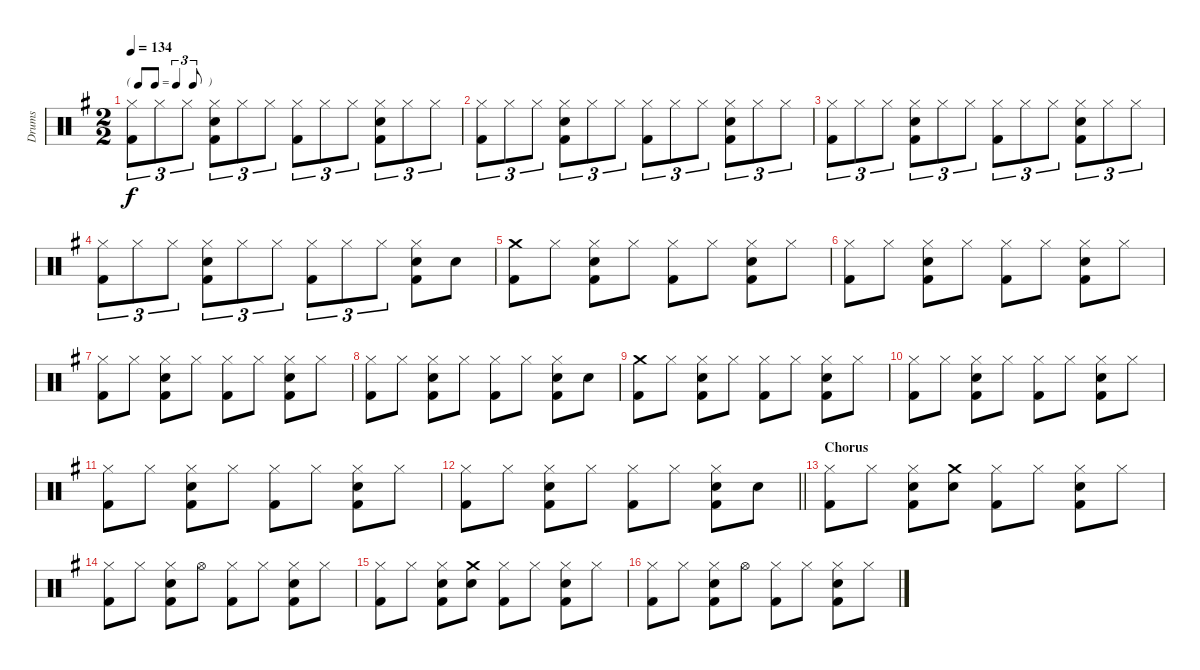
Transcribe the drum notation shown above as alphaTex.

\track ("Drums" "Drums") {instrument percussion}
\staff {score}
\articulation defaults
\ts (2 2)
\tf triplet8th
\tempo 134
\clef neutral
\ks g
("Hi-Hat (closed)" "Kick (hit) 2").8{tu (3 2) dy f} "Hi-Hat (closed)".8{tu (3 2)} "Hi-Hat (closed)".8{tu (3 2) beam split} ("Hi-Hat (closed)" "Snare (hit) 2" "Kick (hit) 2").8{tu (3 2)} "Hi-Hat (closed)".8{tu (3 2)} "Hi-Hat (closed)".8{tu (3 2) beam split} ("Hi-Hat (closed)" "Kick (hit) 2").8{tu (3 2)} "Hi-Hat (closed)".8{tu (3 2)} "Hi-Hat (closed)".8{tu (3 2) beam split} ("Hi-Hat (closed)" "Snare (hit) 2" "Kick (hit) 2").8{tu (3 2)} "Hi-Hat (closed)".8{tu (3 2)} "Hi-Hat (closed)".8{tu (3 2)} |
("Hi-Hat (closed)" "Kick (hit) 2").8{tu (3 2)} "Hi-Hat (closed)".8{tu (3 2)} "Hi-Hat (closed)".8{tu (3 2) beam split} ("Hi-Hat (closed)" "Snare (hit) 2" "Kick (hit) 2").8{tu (3 2)} "Hi-Hat (closed)".8{tu (3 2)} "Hi-Hat (closed)".8{tu (3 2) beam split} ("Hi-Hat (closed)" "Kick (hit) 2").8{tu (3 2)} "Hi-Hat (closed)".8{tu (3 2)} "Hi-Hat (closed)".8{tu (3 2) beam split} ("Hi-Hat (closed)" "Snare (hit) 2" "Kick (hit) 2").8{tu (3 2)} "Hi-Hat (closed)".8{tu (3 2)} "Hi-Hat (closed)".8{tu (3 2)} |
("Hi-Hat (closed)" "Kick (hit) 2").8{tu (3 2)} "Hi-Hat (closed)".8{tu (3 2)} "Hi-Hat (closed)".8{tu (3 2) beam split} ("Hi-Hat (closed)" "Snare (hit) 2" "Kick (hit) 2").8{tu (3 2)} "Hi-Hat (closed)".8{tu (3 2)} "Hi-Hat (closed)".8{tu (3 2) beam split} ("Hi-Hat (closed)" "Kick (hit) 2").8{tu (3 2)} "Hi-Hat (closed)".8{tu (3 2)} "Hi-Hat (closed)".8{tu (3 2) beam split} ("Hi-Hat (closed)" "Snare (hit) 2" "Kick (hit) 2").8{tu (3 2)} "Hi-Hat (closed)".8{tu (3 2)} "Hi-Hat (closed)".8{tu (3 2)} |
("Hi-Hat (closed)" "Kick (hit) 2").8{tu (3 2)} "Hi-Hat (closed)".8{tu (3 2)} "Hi-Hat (closed)".8{tu (3 2) beam split} ("Hi-Hat (closed)" "Snare (hit) 2" "Kick (hit) 2").8{tu (3 2)} "Hi-Hat (closed)".8{tu (3 2)} "Hi-Hat (closed)".8{tu (3 2) beam split} ("Hi-Hat (closed)" "Kick (hit) 2").8{tu (3 2)} "Hi-Hat (closed)".8{tu (3 2)} "Hi-Hat (closed)".8{tu (3 2) beam split} ("Hi-Hat (closed)" "Snare (hit) 2" "Kick (hit) 2").8 "Snare (hit) 2".8 |
("Crash medium (hit)" "Kick (hit) 2").8 "Hi-Hat (closed)".8 ("Hi-Hat (closed)" "Snare (hit) 2" "Kick (hit) 2").8 "Hi-Hat (closed)".8 ("Hi-Hat (closed)" "Kick (hit) 2").8 "Hi-Hat (closed)".8 ("Hi-Hat (closed)" "Snare (hit) 2" "Kick (hit) 2").8 "Hi-Hat (closed)".8 |
("Hi-Hat (closed)" "Kick (hit) 2").8 "Hi-Hat (closed)".8 ("Hi-Hat (closed)" "Snare (hit) 2" "Kick (hit) 2").8 "Hi-Hat (closed)".8 ("Hi-Hat (closed)" "Kick (hit) 2").8 "Hi-Hat (closed)".8 ("Hi-Hat (closed)" "Snare (hit) 2" "Kick (hit) 2").8 "Hi-Hat (closed)".8 |
("Hi-Hat (closed)" "Kick (hit) 2").8 "Hi-Hat (closed)".8 ("Hi-Hat (closed)" "Snare (hit) 2" "Kick (hit) 2").8 "Hi-Hat (closed)".8 ("Hi-Hat (closed)" "Kick (hit) 2").8 "Hi-Hat (closed)".8 ("Hi-Hat (closed)" "Snare (hit) 2" "Kick (hit) 2").8 "Hi-Hat (closed)".8 |
("Hi-Hat (closed)" "Kick (hit) 2").8 "Hi-Hat (closed)".8 ("Hi-Hat (closed)" "Snare (hit) 2" "Kick (hit) 2").8 "Hi-Hat (closed)".8 ("Hi-Hat (closed)" "Kick (hit) 2").8 "Hi-Hat (closed)".8 ("Hi-Hat (closed)" "Snare (hit) 2" "Kick (hit) 2").8 "Snare (hit) 2".8 |
("Crash medium (hit)" "Kick (hit) 2").8 "Hi-Hat (closed)".8 ("Hi-Hat (closed)" "Snare (hit) 2" "Kick (hit) 2").8 "Hi-Hat (closed)".8 ("Hi-Hat (closed)" "Kick (hit) 2").8 "Hi-Hat (closed)".8 ("Hi-Hat (closed)" "Snare (hit) 2" "Kick (hit) 2").8 "Hi-Hat (closed)".8 |
("Hi-Hat (closed)" "Kick (hit) 2").8 "Hi-Hat (closed)".8 ("Hi-Hat (closed)" "Snare (hit) 2" "Kick (hit) 2").8 "Hi-Hat (closed)".8 ("Hi-Hat (closed)" "Kick (hit) 2").8 "Hi-Hat (closed)".8 ("Hi-Hat (closed)" "Snare (hit) 2" "Kick (hit) 2").8 "Hi-Hat (closed)".8 |
("Hi-Hat (closed)" "Kick (hit) 2").8 "Hi-Hat (closed)".8 ("Hi-Hat (closed)" "Snare (hit) 2" "Kick (hit) 2").8 "Hi-Hat (closed)".8 ("Hi-Hat (closed)" "Kick (hit) 2").8 "Hi-Hat (closed)".8 ("Hi-Hat (closed)" "Snare (hit) 2" "Kick (hit) 2").8 "Hi-Hat (closed)".8 |
\barLineRight lightlight
("Hi-Hat (closed)" "Kick (hit) 2").8 "Hi-Hat (closed)".8 ("Hi-Hat (closed)" "Snare (hit) 2" "Kick (hit) 2").8 "Hi-Hat (closed)".8 ("Hi-Hat (closed)" "Kick (hit) 2").8 "Hi-Hat (closed)".8 ("Hi-Hat (closed)" "Snare (hit) 2" "Kick (hit) 2").8 "Snare (hit) 2".8 |
\section ("" "Chorus")
("Hi-Hat (closed)" "Kick (hit) 2").8 "Hi-Hat (closed)".8 ("Hi-Hat (closed)" "Snare (hit) 2" "Kick (hit) 2").8 ("Crash medium (hit)" "Snare (hit) 2").8 ("Hi-Hat (closed)" "Kick (hit) 2").8 "Hi-Hat (closed)".8 ("Hi-Hat (closed)" "Snare (hit) 2" "Kick (hit) 2").8 "Hi-Hat (closed)".8 |
("Hi-Hat (closed)" "Kick (hit) 2").8 "Hi-Hat (closed)".8 ("Hi-Hat (closed)" "Snare (hit) 2" "Kick (hit) 2").8 "Hi-Hat (open)".8 ("Hi-Hat (closed)" "Kick (hit) 2").8 "Hi-Hat (closed)".8 ("Hi-Hat (closed)" "Snare (hit) 2" "Kick (hit) 2").8 "Hi-Hat (closed)".8 |
("Hi-Hat (closed)" "Kick (hit) 2").8 "Hi-Hat (closed)".8 ("Hi-Hat (closed)" "Snare (hit) 2" "Kick (hit) 2").8 ("Crash medium (hit)" "Snare (hit) 2").8 ("Hi-Hat (closed)" "Kick (hit) 2").8 "Hi-Hat (closed)".8 ("Hi-Hat (closed)" "Snare (hit) 2" "Kick (hit) 2").8 "Hi-Hat (closed)".8 |
("Hi-Hat (closed)" "Kick (hit) 2").8 "Hi-Hat (closed)".8 ("Hi-Hat (closed)" "Snare (hit) 2" "Kick (hit) 2").8 "Hi-Hat (open)".8 ("Hi-Hat (closed)" "Kick (hit) 2").8 "Hi-Hat (closed)".8 ("Hi-Hat (closed)" "Snare (hit) 2" "Kick (hit) 2").8 "Hi-Hat (closed)".8
